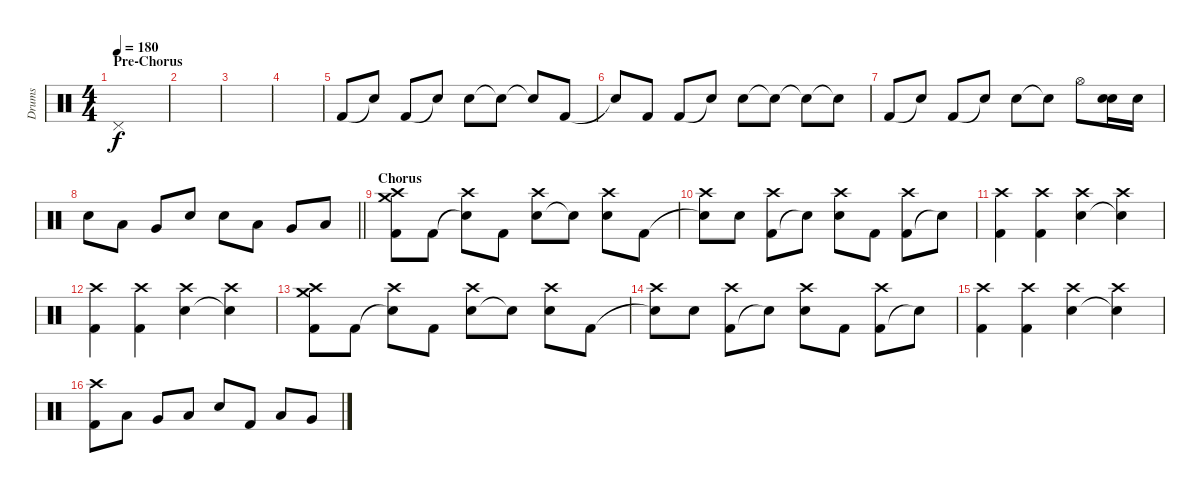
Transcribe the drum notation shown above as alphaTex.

\track ("Drums" "Drums") {instrument percussion}
\staff {score}
\articulation defaults
\ts (4 4)
\section ("" "Pre-Chorus")
\tempo 180
\clef neutral
\ks c "Pedal Hi-Hat (hit)".1{dy f}
|
|
|
|
"Kick (hit) 2".8 "Snare (hit)"{t}.8 "Kick (hit) 2".8 "Snare (hit)"{t}.8 "Electric Snare (hit)".8 "Snare (hit)"{t}.8 "Snare (hit)"{t}.8 "Kick (hit) 2".8 |
"Snare (hit)"{t}.8 "Kick (hit) 2".8 "Kick (hit) 2".8 "Snare (hit)"{t}.8 "Electric Snare (hit)".8 "Snare (hit)"{t}.8 "Snare (hit)"{t}.8 "Snare (hit)"{t}.8 |
"Kick (hit) 2".8 "Snare (hit)"{t}.8 "Kick (hit) 2".8 "Snare (hit)"{t}.8 "Electric Snare (hit)".8 "Snare (hit)"{t}.8 "Hi-Hat (open)".8 ("Electric Snare (hit)" "Snare (hit)").16 "Electric Snare (hit)".16 |
\barLineRight lightlight "Electric Snare (hit)".8 "Low Tom (hit)".8 "Very Low Tom (hit)".8 "Electric Snare (hit)".8 "Electric Snare (hit)".8 "Low Tom (hit)".8 "Very Low Tom (hit)".8 "Low Floor Tom (hit)".8
|
\section ("" "Chorus")
("Kick (hit) 2" "Crash medium (hit)" "Crash high (hit)").8 "Kick (hit) 2".8 ("Snare (hit)"{t} "Crash high (hit)").8 "Kick (hit) 2".8 ("Electric Snare (hit)" "Crash high (hit)").8 "Snare (hit)"{t}.8 ("Electric Snare (hit)" "Crash high (hit)").8 "Kick (hit) 2".8 |
("Snare (hit)"{t} "Crash high (hit)").8 "Electric Snare (hit)".8 ("Kick (hit) 2" "Crash high (hit)").8 "Snare (hit)"{t}.8 ("Electric Snare (hit)" "Crash high (hit)").8 "Kick (hit) 2".8 ("Kick (hit) 2" "Crash high (hit)").8 "Electric Snare (hit)"{t}.8 |
("Kick (hit) 2" "Crash high (hit)").4 ("Kick (hit) 2" "Crash high (hit)").4 ("Electric Snare (hit)" "Crash high (hit)").4 ("Snare (hit)"{t} "Crash high (hit)").4 |
("Kick (hit) 2" "Crash high (hit)").4 ("Kick (hit) 2" "Crash high (hit)").4 ("Electric Snare (hit)" "Crash high (hit)").4 ("Snare (hit)"{t} "Crash high (hit)").4 |
("Kick (hit) 2" "Crash medium (hit)" "Crash high (hit)").8 "Kick (hit) 2".8 ("Snare (hit)"{t} "Crash high (hit)").8 "Kick (hit) 2".8 ("Electric Snare (hit)" "Crash high (hit)").8 "Snare (hit)"{t}.8 ("Electric Snare (hit)" "Crash high (hit)").8 "Kick (hit) 2".8 |
("Snare (hit)"{t} "Crash high (hit)").8 "Electric Snare (hit)".8 ("Kick (hit) 2" "Crash high (hit)").8 "Snare (hit)"{t}.8 ("Electric Snare (hit)" "Crash high (hit)").8 "Kick (hit) 2".8 ("Kick (hit) 2" "Crash high (hit)").8 "Electric Snare (hit)"{t}.8 |
("Kick (hit) 2" "Crash high (hit)").4 ("Kick (hit) 2" "Crash high (hit)").4 ("Electric Snare (hit)" "Crash high (hit)").4 ("Snare (hit)"{t} "Crash high (hit)").4 |
("Kick (hit) 2" "Crash high (hit)").8 "Low Tom (hit)".8 "Very Low Tom (hit)".8 "Low Floor Tom (hit)".8 "Electric Snare (hit)".8 "Kick (hit) 2".8 "Low Tom (hit)".8 "Very Low Tom (hit)".8
